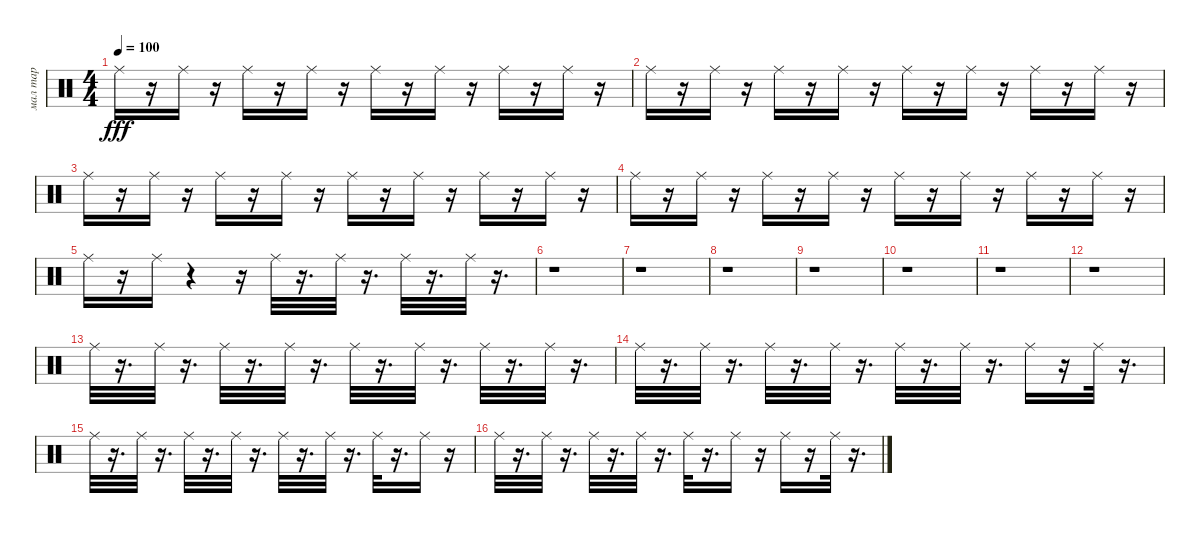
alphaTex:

\track ("мал тар" "мал тар") {instrument percussion}
\staff {score}
\articulation defaults
\ts (4 4)
\tempo 100
\clef neutral
\ks c "Ride (middle)".16{dy fff}
r.16 "Ride (middle)".16 r.16 "Ride (middle)".16 r.16 "Ride (middle)".16 r.16 "Ride (middle)".16 r.16 "Ride (middle)".16 r.16 "Ride (middle)".16 r.16 "Ride (middle)".16 r.16 |
"Ride (middle)".16 r.16 "Ride (middle)".16 r.16 "Ride (middle)".16 r.16 "Ride (middle)".16 r.16 "Ride (middle)".16 r.16 "Ride (middle)".16 r.16 "Ride (middle)".16 r.16 "Ride (middle)".16 r.16 |
"Ride (middle)".16 r.16 "Ride (middle)".16 r.16 "Ride (middle)".16 r.16 "Ride (middle)".16 r.16 "Ride (middle)".16 r.16 "Ride (middle)".16 r.16 "Ride (middle)".16 r.16 "Ride (middle)".16 r.16 |
"Ride (middle)".16 r.16 "Ride (middle)".16 r.16 "Ride (middle)".16 r.16 "Ride (middle)".16 r.16 "Ride (middle)".16 r.16 "Ride (middle)".16 r.16 "Ride (middle)".16 r.16 "Ride (middle)".16 r.16 |
"Ride (middle)".16 r.16 "Ride (middle)".16 r.4 r.16 "Ride (middle)".32 r.16{d} "Ride (middle)".32 r.16{d} "Ride (middle)".32 r.16{d} "Ride (middle)".32 r.16{d} |
r.1 |
r.1 |
r.1 |
r.1 |
r.1 |
r.1 |
r.1 |
"Ride (middle)".32 r.16{d} "Ride (middle)".32 r.16{d} "Ride (middle)".32 r.16{d} "Ride (middle)".32 r.16{d} "Ride (middle)".32 r.16{d} "Ride (middle)".32 r.16{d} "Ride (middle)".32 r.16{d} "Ride (middle)".32 r.16{d} |
"Ride (middle)".32 r.16{d} "Ride (middle)".32 r.16{d} "Ride (middle)".32 r.16{d} "Ride (middle)".32 r.16{d} "Ride (middle)".32 r.16{d} "Ride (middle)".32 r.16{d} "Ride (middle)".16 r.16 "Ride (middle)".32 r.16{d} |
"Ride (middle)".32 r.16{d} "Ride (middle)".32 r.16{d} "Ride (middle)".32 r.16{d} "Ride (middle)".32 r.16{d} "Ride (middle)".32 r.16{d} "Ride (middle)".32 r.16{d} "Ride (middle)".32 r.16{d} "Ride (middle)".16 r.16 |
"Ride (middle)".32 r.16{d} "Ride (middle)".32 r.16{d} "Ride (middle)".32 r.16{d} "Ride (middle)".32 r.16{d} "Ride (middle)".32 r.16{d} "Ride (middle)".16 r.16 "Ride (middle)".16 r.16 "Ride (middle)".32 r.16{d}
